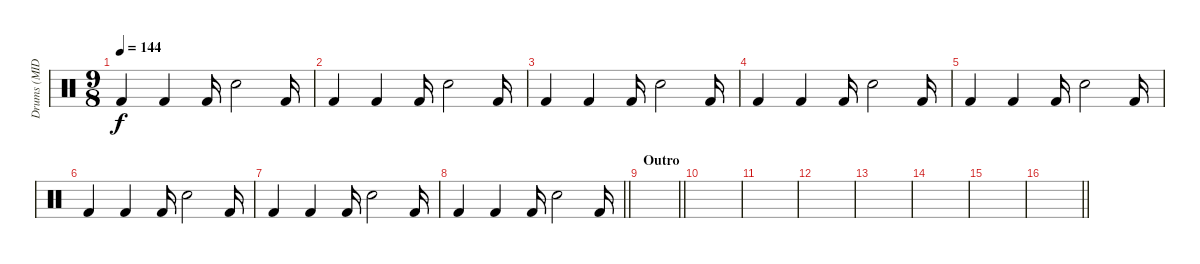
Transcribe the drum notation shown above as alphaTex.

\track ("Drums (MIDI!)" "Drums (MID") {instrument percussion}
\staff {score}
\articulation defaults
\ts (9 8)
\tempo 144
\clef neutral
\ks c "Kick (hit) 2".4{dy f} "Kick (hit) 2".4 "Kick (hit) 2".16 "Electric Snare (hit)".2 "Kick (hit) 2".16
|
"Kick (hit) 2".4 "Kick (hit) 2".4 "Kick (hit) 2".16 "Electric Snare (hit)".2 "Kick (hit) 2".16 |
"Kick (hit) 2".4 "Kick (hit) 2".4 "Kick (hit) 2".16 "Electric Snare (hit)".2 "Kick (hit) 2".16 |
"Kick (hit) 2".4 "Kick (hit) 2".4 "Kick (hit) 2".16 "Electric Snare (hit)".2 "Kick (hit) 2".16 |
"Kick (hit) 2".4 "Kick (hit) 2".4 "Kick (hit) 2".16 "Electric Snare (hit)".2 "Kick (hit) 2".16 |
"Kick (hit) 2".4 "Kick (hit) 2".4 "Kick (hit) 2".16 "Electric Snare (hit)".2 "Kick (hit) 2".16 |
"Kick (hit) 2".4 "Kick (hit) 2".4 "Kick (hit) 2".16 "Electric Snare (hit)".2 "Kick (hit) 2".16 |
\barLineRight lightlight "Kick (hit) 2".4 "Kick (hit) 2".4 "Kick (hit) 2".16 "Electric Snare (hit)".2 "Kick (hit) 2".16
|
\section ("" "Outro")
\barLineRight lightlight
|
|
|
|
|
|
|
\barLineRight lightlight
